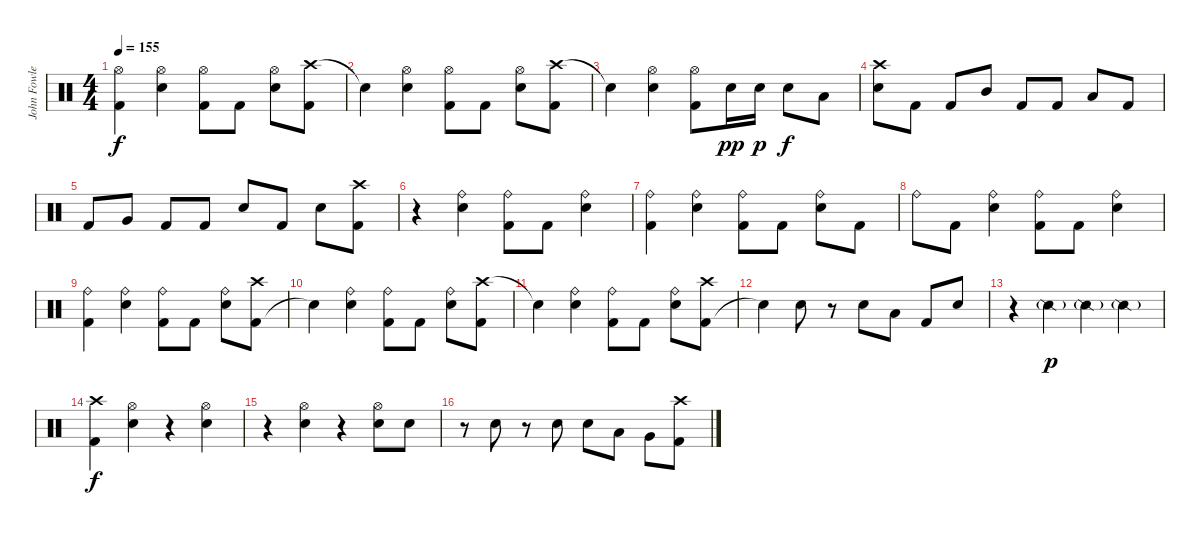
\track ("John Fowler - Drums" "John Fowle") {instrument percussion}
\staff {score}
\articulation defaults
\ts (4 4)
\tempo 155
\clef neutral
\ks c
("Hi-Hat (open)" "Kick (hit) 2").4{dy f} ("Hi-Hat (open)" "Electric Snare (hit)").4 ("Hi-Hat (open)" "Kick (hit) 2").8 "Kick (hit) 2".8 ("Hi-Hat (open)" "Electric Snare (hit)").8 ("Crash high (hit)" "Kick (hit) 2").8 |
"Snare (hit)"{t}.4 ("Hi-Hat (open)" "Electric Snare (hit)").4 ("Hi-Hat (open)" "Kick (hit) 2").8 "Kick (hit) 2".8 ("Hi-Hat (open)" "Electric Snare (hit)").8 ("Crash high (hit)" "Kick (hit) 2").8 |
"Snare (hit)"{t}.4 ("Hi-Hat (open)" "Electric Snare (hit)").4 ("Hi-Hat (open)" "Kick (hit) 2").8 "Electric Snare (hit)".16{dy pp} "Electric Snare (hit)".16{dy p} "Electric Snare (hit)".8{dy f} "Low Tom (hit)".8 |
("Electric Snare (hit)" "Crash high (hit)").8 "Kick (hit) 2".8 "Kick (hit) 2".8 "Mid Tom (hit)".8 "Kick (hit) 2".8 "Kick (hit) 2".8 "Low Tom (hit)".8 "Kick (hit) 2".8 |
"Kick (hit) 2".8 "Very Low Tom (hit)".8 "Kick (hit) 2".8 "Kick (hit) 2".8 "Electric Snare (hit)".8 "Kick (hit) 2".8 "Electric Snare (hit)".8 ("Kick (hit) 2" "Crash high (hit)").8 |
r.4 ("Ride (bell)" "Electric Snare (hit)").4 ("Ride (bell)" "Kick (hit) 2").8 "Kick (hit) 2".8 ("Electric Snare (hit)" "Ride (bell)").4 |
("Ride (bell)" "Kick (hit) 2").4 ("Ride (bell)" "Electric Snare (hit)").4 ("Kick (hit) 2" "Ride (bell)").8 "Kick (hit) 2".8 ("Ride (bell)" "Electric Snare (hit)").8 "Kick (hit) 2".8 |
"Ride (bell)".8 "Kick (hit) 2".8 ("Ride (bell)" "Electric Snare (hit)").4 ("Ride (bell)" "Kick (hit) 2").8 "Kick (hit) 2".8 ("Ride (bell)" "Electric Snare (hit)").4 |
("Ride (bell)" "Kick (hit) 2").4 ("Electric Snare (hit)" "Ride (bell)").4 ("Kick (hit) 2" "Ride (bell)").8 "Kick (hit) 2".8 ("Electric Snare (hit)" "Ride (bell)").8 ("Kick (hit) 2" "Crash high (hit)").8 |
"Snare (hit)"{t}.4 ("Ride (bell)" "Electric Snare (hit)").4 ("Ride (bell)" "Kick (hit) 2").8 "Kick (hit) 2".8 ("Ride (bell)" "Electric Snare (hit)").8 ("Crash high (hit)" "Kick (hit) 2").8 |
"Snare (hit)"{t}.4 ("Ride (bell)" "Electric Snare (hit)").4 ("Ride (bell)" "Kick (hit) 2").8 "Kick (hit) 2".8 ("Ride (bell)" "Electric Snare (hit)").8 ("Kick (hit) 2" "Crash high (hit)").8 |
"Snare (hit)"{t}.4 "Electric Snare (hit)".8 r.8 "Electric Snare (hit)".8 "Low Tom (hit)".8 "Kick (hit) 2".8 "Electric Snare (hit)".8 |
r.4 "Snare (side stick) 2"{g}.4{dy p} "Snare (side stick) 2"{g}.4 "Snare (side stick) 2"{g}.4 |
("Crash high (hit)" "Kick (hit) 2").4{dy f} ("Hi-Hat (open)" "Electric Snare (hit)").4 r.4 ("Hi-Hat (open)" "Electric Snare (hit)").4 |
r.4 ("Hi-Hat (open)" "Electric Snare (hit)").4 r.4 ("Electric Snare (hit)" "Hi-Hat (open)").8 "Electric Snare (hit)".8 |
r.8 "Electric Snare (hit)".8 r.8 "Electric Snare (hit)".8 "Electric Snare (hit)".8 "Low Tom (hit)".8 "Very Low Tom (hit)".8 ("Crash high (hit)" "Kick (hit) 2").8
